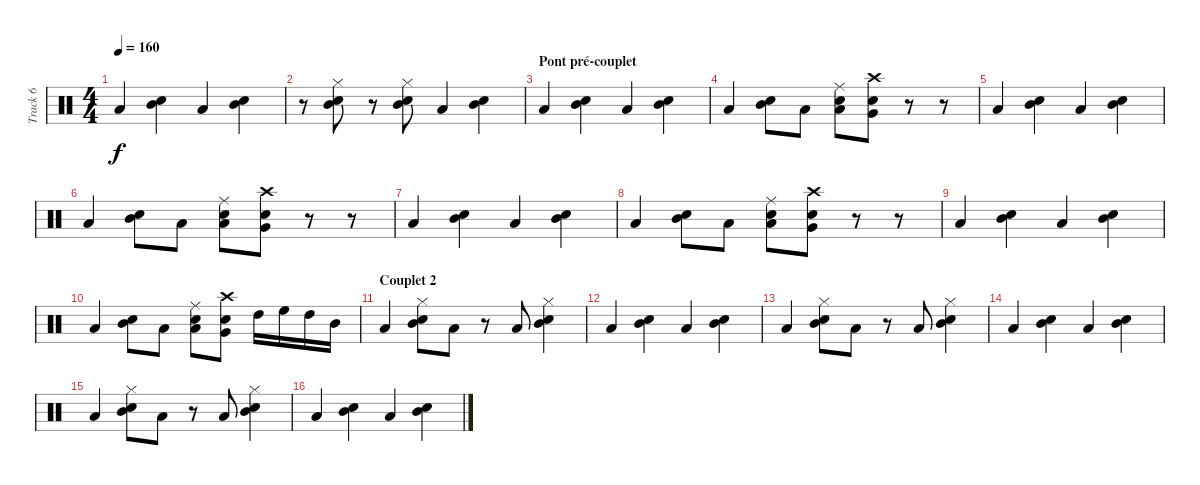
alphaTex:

\track ("Track 6" "Track 6") {instrument percussion}
\staff {score}
\articulation defaults
\ts (4 4)
\tempo 160
\clef neutral
\ks c "Low Tom (hit)".4{dy f}
("Mid Tom (hit)" "Snare (hit) 2").4 "Low Tom (hit)".4 ("Mid Tom (hit)" "Snare (hit) 2").4 |
r.8 ("Mid Tom (hit)" "Hi-Hat (closed)" "Snare (hit) 2").8 r.8 ("Mid Tom (hit)" "Hi-Hat (closed)" "Snare (hit) 2").8 "Low Tom (hit)".4 ("Mid Tom (hit)" "Snare (hit) 2").4 |
\section ("" "Pont pré-couplet")
"Low Tom (hit)".4 ("Mid Tom (hit)" "Snare (hit) 2").4 "Low Tom (hit)".4 ("Mid Tom (hit)" "Snare (hit) 2").4 |
"Low Tom (hit)".4 ("Mid Tom (hit)" "Snare (hit) 2").8 "Low Floor Tom (hit)".8 ("Low Tom (hit)" "Ride (middle)" "Electric Snare (hit)").8 ("Very Low Tom (hit)" "Crash high (hit)" "Snare (hit) 2").8 r.8 r.8 |
"Low Tom (hit)".4 ("Mid Tom (hit)" "Snare (hit) 2").4 "Low Tom (hit)".4 ("Mid Tom (hit)" "Snare (hit) 2").4 |
"Low Tom (hit)".4 ("Mid Tom (hit)" "Snare (hit) 2").8 "Low Floor Tom (hit)".8 ("Low Tom (hit)" "Ride (middle)" "Electric Snare (hit)").8 ("Very Low Tom (hit)" "Crash high (hit)" "Snare (hit) 2").8 r.8 r.8 |
"Low Tom (hit)".4 ("Mid Tom (hit)" "Snare (hit) 2").4 "Low Tom (hit)".4 ("Mid Tom (hit)" "Snare (hit) 2").4 |
"Low Tom (hit)".4 ("Mid Tom (hit)" "Snare (hit) 2").8 "Low Floor Tom (hit)".8 ("Low Tom (hit)" "Ride (middle)" "Electric Snare (hit)").8 ("Very Low Tom (hit)" "Crash high (hit)" "Snare (hit) 2").8 r.8 r.8 |
"Low Tom (hit)".4 ("Mid Tom (hit)" "Snare (hit) 2").4 "Low Tom (hit)".4 ("Mid Tom (hit)" "Snare (hit) 2").4 |
"Low Tom (hit)".4 ("Mid Tom (hit)" "Snare (hit) 2").8 "Low Floor Tom (hit)".8 ("Low Tom (hit)" "Ride (middle)" "Electric Snare (hit)").8 ("Very Low Tom (hit)" "Crash high (hit)" "Snare (hit) 2").8 "High Tom (hit)".16 "High Floor Tom (hit)".16 "High Tom (hit)".16 "Mid Tom (hit)".16 |
\section ("" "Couplet 2")
"Low Tom (hit)".4 ("Mid Tom (hit)" "Hi-Hat (closed)" "Snare (hit) 2").8 "Low Tom (hit)".8 r.8 "Low Tom (hit)".8 ("Mid Tom (hit)" "Hi-Hat (closed)" "Snare (hit) 2").4 |
"Low Tom (hit)".4 ("Mid Tom (hit)" "Snare (hit) 2").4 "Low Tom (hit)".4 ("Mid Tom (hit)" "Snare (hit) 2").4 |
"Low Tom (hit)".4 ("Mid Tom (hit)" "Hi-Hat (closed)" "Snare (hit) 2").8 "Low Tom (hit)".8 r.8 "Low Tom (hit)".8 ("Mid Tom (hit)" "Hi-Hat (closed)" "Snare (hit) 2").4 |
"Low Tom (hit)".4 ("Mid Tom (hit)" "Snare (hit) 2").4 "Low Tom (hit)".4 ("Mid Tom (hit)" "Snare (hit) 2").4 |
"Low Tom (hit)".4 ("Mid Tom (hit)" "Hi-Hat (closed)" "Snare (hit) 2").8 "Low Tom (hit)".8 r.8 "Low Tom (hit)".8 ("Mid Tom (hit)" "Hi-Hat (closed)" "Snare (hit) 2").4 |
"Low Tom (hit)".4 ("Mid Tom (hit)" "Snare (hit) 2").4 "Low Tom (hit)".4 ("Mid Tom (hit)" "Snare (hit) 2").4
